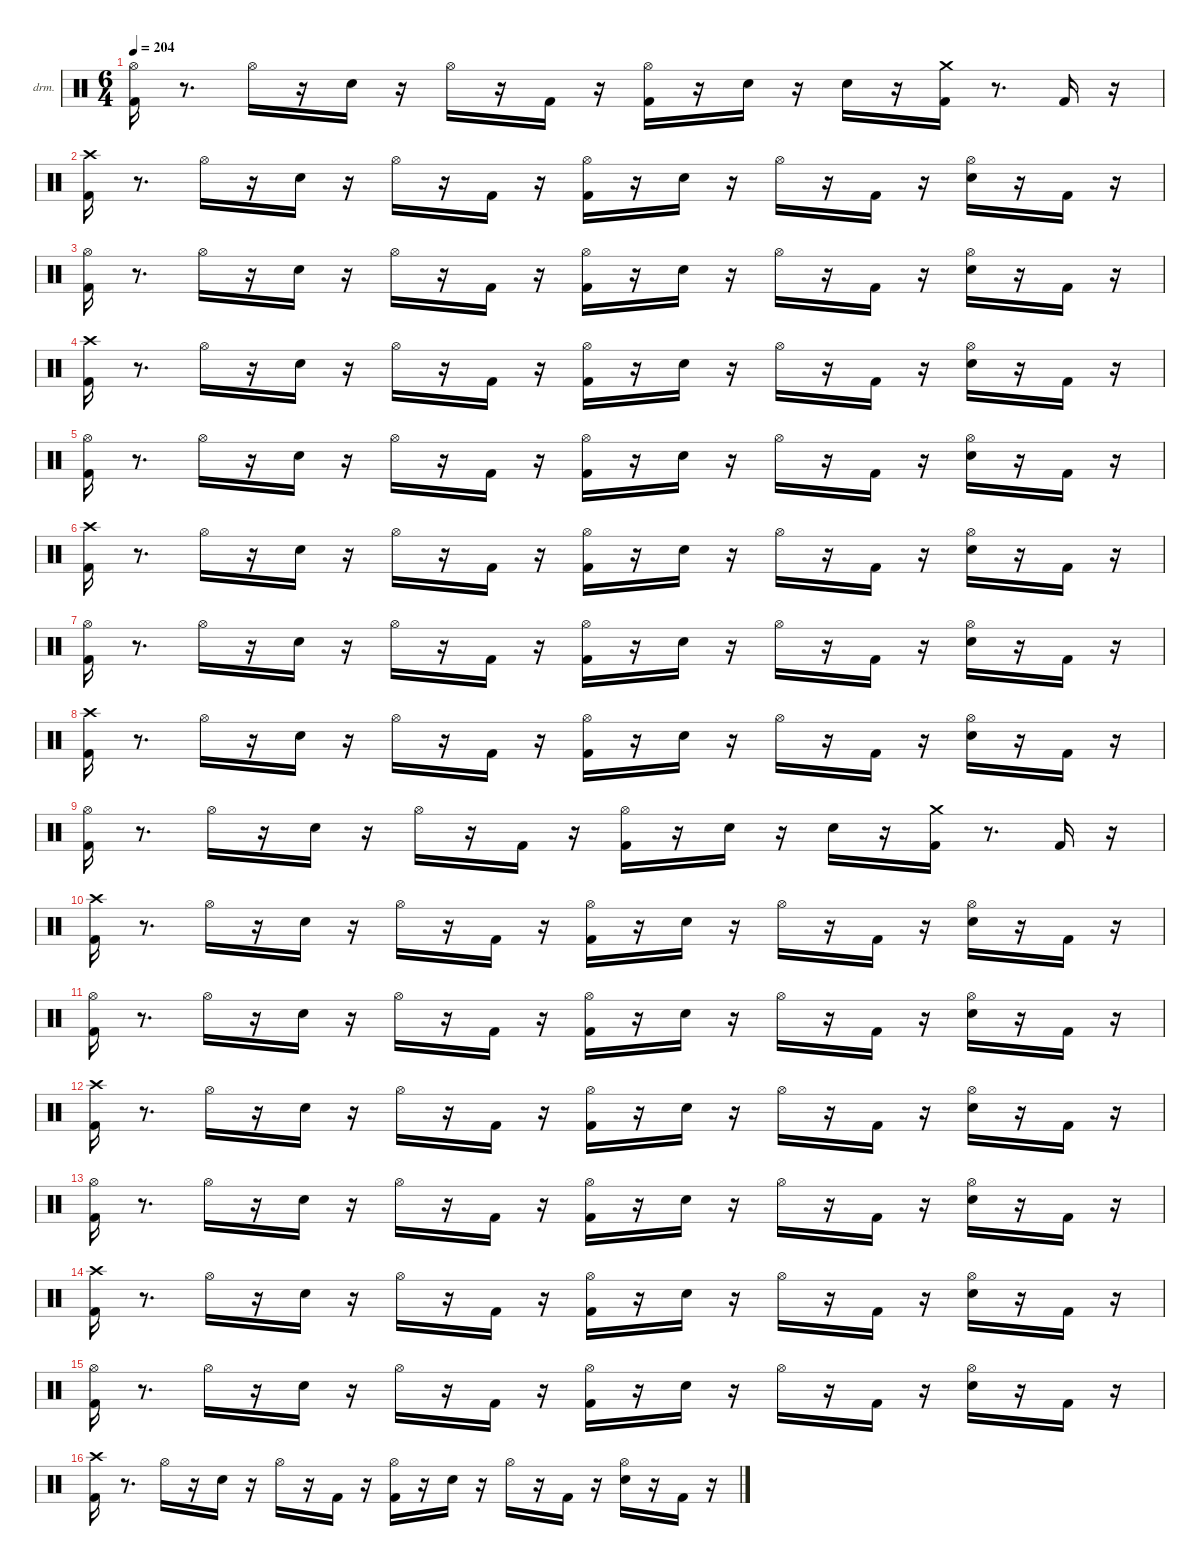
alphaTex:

\hideDynamics
\bracketExtendMode nobrackets
\firstSystemTrackNameOrientation horizontal
\otherSystemsTrackNameOrientation horizontal
\track ("drums" "drm.") {instrument percussion}
\staff {score}
\articulation defaults
\ts (6 4)
\tempo 204
\clef neutral
\ks aminor
("Kick (hit) 2" "Hi-Hat (open)"{acc #}).16{dy fff beam Down} r.8{d beam Down} "Hi-Hat (open)"{acc #}.16{dy mp beam Down} r.16{beam Down} "Snare (hit) 2".16{dy ff beam Down} r.16{beam Down} "Hi-Hat (open)"{acc #}.16{dy f beam Down} r.16{beam Down} "Kick (hit) 2".16{dy mf beam Up} r.16{beam Up} ("Kick (hit) 2" "Hi-Hat (open)"{acc #}).16{dy fff beam Down} r.16{beam Down} "Snare (hit) 2".16{dy ff beam Down} r.16{beam Down} "Snare (hit) 2".16{dy p beam Down} r.16{beam Down} ("Kick (hit) 2" "Crash medium (hit)").16{dy ff beam Down} r.8{d beam Down} "Kick (hit) 2".16{dy mf beam Up} r.16{beam Up} |
("Kick (hit) 2" "Crash high (hit)"{acc #}).16{dy fff beam Down} r.8{d beam Down} "Hi-Hat (open)"{acc #}.16{dy mp beam Down} r.16{beam Down} "Snare (hit) 2".16{dy ff beam Down} r.16{beam Down} "Hi-Hat (open)"{acc #}.16{dy f beam Down} r.16{beam Down} "Kick (hit) 2".16{beam Up} r.16{beam Up} ("Kick (hit) 2" "Hi-Hat (open)"{acc #}).16{dy ff beam Down} r.16{beam Down} "Snare (hit) 2".16{beam Down} r.16{beam Down} "Hi-Hat (open)"{acc #}.16{dy mf beam Down} r.16{beam Down} "Kick (hit) 2".16{dy ff beam Up} r.16{beam Up} ("Snare (hit) 2" "Hi-Hat (open)"{acc #}).16{beam Down} r.16{beam Down} "Kick (hit) 2".16{dy f beam Up} r.16{beam Up} |
("Kick (hit) 2" "Hi-Hat (open)"{acc #}).16{dy fff beam Down} r.8{d beam Down} "Hi-Hat (open)"{acc #}.16{dy mf beam Down} r.16{beam Down} "Snare (hit) 2".16{dy ff beam Down} r.16{beam Down} "Hi-Hat (open)"{acc #}.16{dy f beam Down} r.16{beam Down} "Kick (hit) 2".16{dy mf beam Up} r.16{beam Up} ("Kick (hit) 2" "Hi-Hat (open)"{acc #}).16{dy fff beam Down} r.16{beam Down} "Snare (hit) 2".16{dy ff beam Down} r.16{beam Down} "Hi-Hat (open)"{acc #}.16{dy mf beam Down} r.16{beam Down} "Kick (hit) 2".16{dy ff beam Up} r.16{beam Up} ("Snare (hit) 2" "Hi-Hat (open)"{acc #}).16{dy f beam Down} r.16{beam Down} "Kick (hit) 2".16{dy mp beam Up} r.16{beam Up} |
("Kick (hit) 2" "Crash high (hit)"{acc #}).16{dy fff beam Down} r.8{d beam Down} "Hi-Hat (open)"{acc #}.16{dy mf beam Down} r.16{beam Down} "Snare (hit) 2".16{dy ff beam Down} r.16{beam Down} "Hi-Hat (open)"{acc #}.16{dy f beam Down} r.16{beam Down} "Kick (hit) 2".16{dy mf beam Up} r.16{beam Up} ("Kick (hit) 2" "Hi-Hat (open)"{acc #}).16{dy fff beam Down} r.16{beam Down} "Snare (hit) 2".16{dy ff beam Down} r.16{beam Down} "Hi-Hat (open)"{acc #}.16{dy mp beam Down} r.16{beam Down} "Kick (hit) 2".16{dy ff beam Up} r.16{beam Up} ("Snare (hit) 2" "Hi-Hat (open)"{acc #}).16{dy f beam Down} r.16{beam Down} "Kick (hit) 2".16{dy mp beam Up} r.16{beam Up} |
("Kick (hit) 2" "Hi-Hat (open)"{acc #}).16{dy fff beam Down} r.8{d beam Down} "Hi-Hat (open)"{acc #}.16{dy mp beam Down} r.16{beam Down} "Snare (hit) 2".16{dy ff beam Down} r.16{beam Down} "Hi-Hat (open)"{acc #}.16{dy f beam Down} r.16{beam Down} "Kick (hit) 2".16{dy mf beam Up} r.16{beam Up} ("Kick (hit) 2" "Hi-Hat (open)"{acc #}).16{dy fff beam Down} r.16{beam Down} "Snare (hit) 2".16{dy ff beam Down} r.16{beam Down} "Hi-Hat (open)"{acc #}.16{dy mf beam Down} r.16{beam Down} "Kick (hit) 2".16{dy ff beam Up} r.16{beam Up} ("Snare (hit) 2" "Hi-Hat (open)"{acc #}).16{dy f beam Down} r.16{beam Down} "Kick (hit) 2".16{dy mp beam Up} r.16{beam Up} |
("Kick (hit) 2" "Crash high (hit)"{acc #}).16{dy fff beam Down} r.8{d beam Down} "Hi-Hat (open)"{acc #}.16{dy mf beam Down} r.16{beam Down} "Snare (hit) 2".16{dy ff beam Down} r.16{beam Down} "Hi-Hat (open)"{acc #}.16{dy f beam Down} r.16{beam Down} "Kick (hit) 2".16{dy mf beam Up} r.16{beam Up} ("Kick (hit) 2" "Hi-Hat (open)"{acc #}).16{dy fff beam Down} r.16{beam Down} "Snare (hit) 2".16{dy ff beam Down} r.16{beam Down} "Hi-Hat (open)"{acc #}.16{dy mp beam Down} r.16{beam Down} "Kick (hit) 2".16{dy ff beam Up} r.16{beam Up} ("Snare (hit) 2" "Hi-Hat (open)"{acc #}).16{dy f beam Down} r.16{beam Down} "Kick (hit) 2".16{dy mp beam Up} r.16{beam Up} |
("Kick (hit) 2" "Hi-Hat (open)"{acc #}).16{dy fff beam Down} r.8{d beam Down} "Hi-Hat (open)"{acc #}.16{dy mp beam Down} r.16{beam Down} "Snare (hit) 2".16{dy ff beam Down} r.16{beam Down} "Hi-Hat (open)"{acc #}.16{dy f beam Down} r.16{beam Down} "Kick (hit) 2".16{dy mf beam Up} r.16{beam Up} ("Kick (hit) 2" "Hi-Hat (open)"{acc #}).16{dy fff beam Down} r.16{beam Down} "Snare (hit) 2".16{dy ff beam Down} r.16{beam Down} "Hi-Hat (open)"{acc #}.16{dy mf beam Down} r.16{beam Down} "Kick (hit) 2".16{dy ff beam Up} r.16{beam Up} ("Snare (hit) 2" "Hi-Hat (open)"{acc #}).16{dy f beam Down} r.16{beam Down} "Kick (hit) 2".16{dy mp beam Up} r.16{beam Up} |
("Kick (hit) 2" "Crash high (hit)"{acc #}).16{dy fff beam Down} r.8{d beam Down} "Hi-Hat (open)"{acc #}.16{dy mf beam Down} r.16{beam Down} "Snare (hit) 2".16{dy ff beam Down} r.16{beam Down} "Hi-Hat (open)"{acc #}.16{dy f beam Down} r.16{beam Down} "Kick (hit) 2".16{dy mf beam Up} r.16{beam Up} ("Kick (hit) 2" "Hi-Hat (open)"{acc #}).16{dy fff beam Down} r.16{beam Down} "Snare (hit) 2".16{dy ff beam Down} r.16{beam Down} "Hi-Hat (open)"{acc #}.16{dy mp beam Down} r.16{beam Down} "Kick (hit) 2".16{dy ff beam Up} r.16{beam Up} ("Snare (hit) 2" "Hi-Hat (open)"{acc #}).16{dy f beam Down} r.16{beam Down} "Kick (hit) 2".16{dy mp beam Up} r.16{beam Up} |
("Kick (hit) 2" "Hi-Hat (open)"{acc #}).16{dy fff beam Down} r.8{d beam Down} "Hi-Hat (open)"{acc #}.16{dy mp beam Down} r.16{beam Down} "Snare (hit) 2".16{dy ff beam Down} r.16{beam Down} "Hi-Hat (open)"{acc #}.16{dy f beam Down} r.16{beam Down} "Kick (hit) 2".16{dy mf beam Up} r.16{beam Up} ("Kick (hit) 2" "Hi-Hat (open)"{acc #}).16{dy fff beam Down} r.16{beam Down} "Snare (hit) 2".16{dy ff beam Down} r.16{beam Down} "Snare (hit) 2".16{dy p beam Down} r.16{beam Down} ("Kick (hit) 2" "Crash medium (hit)").16{dy ff beam Down} r.8{d beam Down} "Kick (hit) 2".16{dy mf beam Up} r.16{beam Up} |
("Kick (hit) 2" "Crash high (hit)"{acc #}).16{dy fff beam Down} r.8{d beam Down} "Hi-Hat (open)"{acc #}.16{dy mf beam Down} r.16{beam Down} "Snare (hit) 2".16{dy ff beam Down} r.16{beam Down} "Hi-Hat (open)"{acc #}.16{dy f beam Down} r.16{beam Down} "Kick (hit) 2".16{dy mf beam Up} r.16{beam Up} ("Kick (hit) 2" "Hi-Hat (open)"{acc #}).16{dy fff beam Down} r.16{beam Down} "Snare (hit) 2".16{dy ff beam Down} r.16{beam Down} "Hi-Hat (open)"{acc #}.16{dy mp beam Down} r.16{beam Down} "Kick (hit) 2".16{dy ff beam Up} r.16{beam Up} ("Snare (hit) 2" "Hi-Hat (open)"{acc #}).16{dy f beam Down} r.16{beam Down} "Kick (hit) 2".16{dy mp beam Up} r.16{beam Up} |
("Kick (hit) 2" "Hi-Hat (open)"{acc #}).16{dy fff beam Down} r.8{d beam Down} "Hi-Hat (open)"{acc #}.16{dy mf beam Down} r.16{beam Down} "Snare (hit) 2".16{dy ff beam Down} r.16{beam Down} "Hi-Hat (open)"{acc #}.16{dy f beam Down} r.16{beam Down} "Kick (hit) 2".16{dy mf beam Up} r.16{beam Up} ("Kick (hit) 2" "Hi-Hat (open)"{acc #}).16{dy fff beam Down} r.16{beam Down} "Snare (hit) 2".16{dy ff beam Down} r.16{beam Down} "Hi-Hat (open)"{acc #}.16{dy mf beam Down} r.16{beam Down} "Kick (hit) 2".16{dy ff beam Up} r.16{beam Up} ("Snare (hit) 2" "Hi-Hat (open)"{acc #}).16{dy f beam Down} r.16{beam Down} "Kick (hit) 2".16{dy mp beam Up} r.16{beam Up} |
("Kick (hit) 2" "Crash high (hit)"{acc #}).16{dy fff beam Down} r.8{d beam Down} "Hi-Hat (open)"{acc #}.16{dy mf beam Down} r.16{beam Down} "Snare (hit) 2".16{dy ff beam Down} r.16{beam Down} "Hi-Hat (open)"{acc #}.16{dy f beam Down} r.16{beam Down} "Kick (hit) 2".16{dy mf beam Up} r.16{beam Up} ("Kick (hit) 2" "Hi-Hat (open)"{acc #}).16{dy fff beam Down} r.16{beam Down} "Snare (hit) 2".16{dy ff beam Down} r.16{beam Down} "Hi-Hat (open)"{acc #}.16{dy mp beam Down} r.16{beam Down} "Kick (hit) 2".16{dy ff beam Up} r.16{beam Up} ("Snare (hit) 2" "Hi-Hat (open)"{acc #}).16{dy f beam Down} r.16{beam Down} "Kick (hit) 2".16{dy mp beam Up} r.16{beam Up} |
("Kick (hit) 2" "Hi-Hat (open)"{acc #}).16{dy fff beam Down} r.8{d beam Down} "Hi-Hat (open)"{acc #}.16{dy mp beam Down} r.16{beam Down} "Snare (hit) 2".16{dy ff beam Down} r.16{beam Down} "Hi-Hat (open)"{acc #}.16{dy f beam Down} r.16{beam Down} "Kick (hit) 2".16{dy mf beam Up} r.16{beam Up} ("Kick (hit) 2" "Hi-Hat (open)"{acc #}).16{dy fff beam Down} r.16{beam Down} "Snare (hit) 2".16{dy ff beam Down} r.16{beam Down} "Hi-Hat (open)"{acc #}.16{dy mf beam Down} r.16{beam Down} "Kick (hit) 2".16{dy ff beam Up} r.16{beam Up} ("Snare (hit) 2" "Hi-Hat (open)"{acc #}).16{dy f beam Down} r.16{beam Down} "Kick (hit) 2".16{dy mp beam Up} r.16{beam Up} |
("Kick (hit) 2" "Crash high (hit)"{acc #}).16{dy fff beam Down} r.8{d beam Down} "Hi-Hat (open)"{acc #}.16{dy mf beam Down} r.16{beam Down} "Snare (hit) 2".16{dy ff beam Down} r.16{beam Down} "Hi-Hat (open)"{acc #}.16{dy f beam Down} r.16{beam Down} "Kick (hit) 2".16{dy mf beam Up} r.16{beam Up} ("Kick (hit) 2" "Hi-Hat (open)"{acc #}).16{dy fff beam Down} r.16{beam Down} "Snare (hit) 2".16{dy ff beam Down} r.16{beam Down} "Hi-Hat (open)"{acc #}.16{dy mp beam Down} r.16{beam Down} "Kick (hit) 2".16{dy ff beam Up} r.16{beam Up} ("Snare (hit) 2" "Hi-Hat (open)"{acc #}).16{dy f beam Down} r.16{beam Down} "Kick (hit) 2".16{dy mp beam Up} r.16{beam Up} |
("Kick (hit) 2" "Hi-Hat (open)"{acc #}).16{dy fff beam Down} r.8{d beam Down} "Hi-Hat (open)"{acc #}.16{dy mp beam Down} r.16{beam Down} "Snare (hit) 2".16{dy ff beam Down} r.16{beam Down} "Hi-Hat (open)"{acc #}.16{dy f beam Down} r.16{beam Down} "Kick (hit) 2".16{dy mf beam Up} r.16{beam Up} ("Kick (hit) 2" "Hi-Hat (open)"{acc #}).16{dy fff beam Down} r.16{beam Down} "Snare (hit) 2".16{dy ff beam Down} r.16{beam Down} "Hi-Hat (open)"{acc #}.16{dy mf beam Down} r.16{beam Down} "Kick (hit) 2".16{dy ff beam Up} r.16{beam Up} ("Snare (hit) 2" "Hi-Hat (open)"{acc #}).16{dy f beam Down} r.16{beam Down} "Kick (hit) 2".16{dy mp beam Up} r.16{beam Up} |
("Kick (hit) 2" "Crash high (hit)"{acc #}).16{dy fff beam Down} r.8{d beam Down} "Hi-Hat (open)"{acc #}.16{dy mf beam Down} r.16{beam Down} "Snare (hit) 2".16{dy ff beam Down} r.16{beam Down} "Hi-Hat (open)"{acc #}.16{dy f beam Down} r.16{beam Down} "Kick (hit) 2".16{dy mf beam Up} r.16{beam Up} ("Kick (hit) 2" "Hi-Hat (open)"{acc #}).16{dy fff beam Down} r.16{beam Down} "Snare (hit) 2".16{dy ff beam Down} r.16{beam Down} "Hi-Hat (open)"{acc #}.16{dy mp beam Down} r.16{beam Down} "Kick (hit) 2".16{dy ff beam Up} r.16{beam Up} ("Snare (hit) 2" "Hi-Hat (open)"{acc #}).16{dy f beam Down} r.16{beam Down} "Kick (hit) 2".16{dy mp beam Up} r.16{beam Up}
